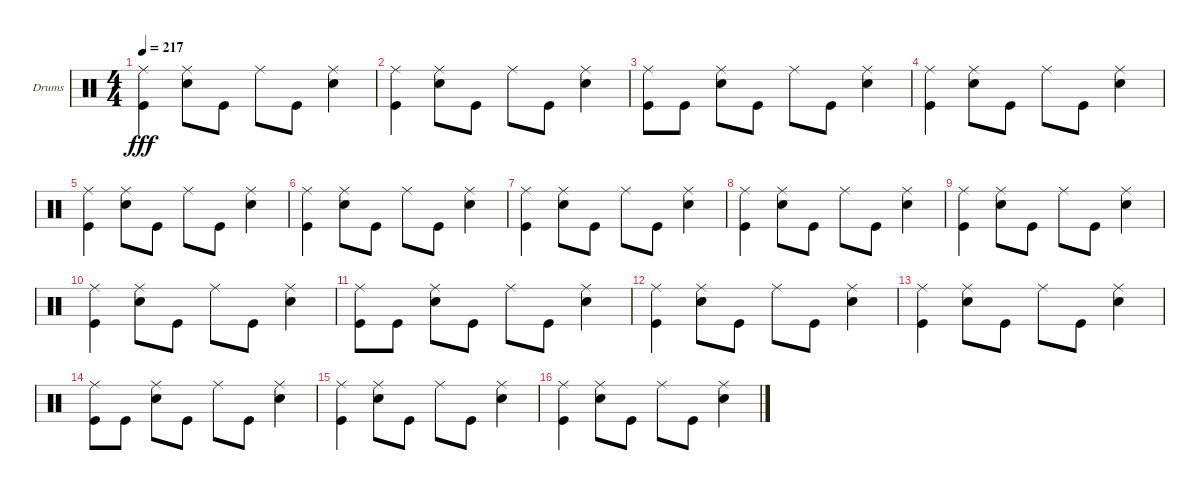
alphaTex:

\bracketExtendMode groupsimilarinstruments
\firstSystemTrackNameOrientation horizontal
\otherSystemsTrackNameOrientation horizontal
\track ("Drumkit" "Drums") {instrument percussion}
\staff {score}
\articulation defaults
\ts (4 4)
\tempo 217
\clef neutral
\ks c
("Kick (hit)" "Ride (middle)").4{dy fff} ("Snare (hit) 2" "Ride (middle)").8 "Kick (hit)".8 "Ride (middle)".8 "Kick (hit)".8 ("Snare (hit) 2" "Ride (middle)").4 |
("Kick (hit)" "Ride (middle)").4 ("Snare (hit) 2" "Ride (middle)").8 "Kick (hit)".8 "Ride (middle)".8 "Kick (hit)".8 ("Snare (hit) 2" "Ride (middle)").4 |
("Kick (hit)" "Ride (middle)").8 "Kick (hit)".8 ("Snare (hit) 2" "Ride (middle)").8 "Kick (hit)".8 "Ride (middle)".8 "Kick (hit)".8 ("Snare (hit) 2" "Ride (middle)").4 |
("Kick (hit)" "Ride (middle)").4 ("Snare (hit) 2" "Ride (middle)").8 "Kick (hit)".8 "Ride (middle)".8 "Kick (hit)".8 ("Snare (hit) 2" "Ride (middle)").4 |
("Kick (hit)" "Ride (middle)").4 ("Snare (hit) 2" "Ride (middle)").8 "Kick (hit)".8 "Ride (middle)".8 "Kick (hit)".8 ("Snare (hit) 2" "Ride (middle)").4 |
("Kick (hit)" "Ride (middle)").4 ("Snare (hit) 2" "Ride (middle)").8 "Kick (hit)".8 "Ride (middle)".8 "Kick (hit)".8 ("Snare (hit) 2" "Ride (middle)").4 |
("Kick (hit)" "Ride (middle)").4 ("Snare (hit) 2" "Ride (middle)").8 "Kick (hit)".8 "Ride (middle)".8 "Kick (hit)".8 ("Snare (hit) 2" "Ride (middle)").4 |
("Kick (hit)" "Ride (middle)").4 ("Snare (hit) 2" "Ride (middle)").8 "Kick (hit)".8 "Ride (middle)".8 "Kick (hit)".8 ("Snare (hit) 2" "Ride (middle)").4 |
("Kick (hit)" "Ride (middle)").4 ("Snare (hit) 2" "Ride (middle)").8 "Kick (hit)".8 "Ride (middle)".8 "Kick (hit)".8 ("Snare (hit) 2" "Ride (middle)").4 |
("Kick (hit)" "Ride (middle)").4 ("Snare (hit) 2" "Ride (middle)").8 "Kick (hit)".8 "Ride (middle)".8 "Kick (hit)".8 ("Snare (hit) 2" "Ride (middle)").4 |
("Kick (hit)" "Ride (middle)").8 "Kick (hit)".8 ("Snare (hit) 2" "Ride (middle)").8 "Kick (hit)".8 "Ride (middle)".8 "Kick (hit)".8 ("Snare (hit) 2" "Ride (middle)").4 |
("Kick (hit)" "Ride (middle)").4 ("Snare (hit) 2" "Ride (middle)").8 "Kick (hit)".8 "Ride (middle)".8 "Kick (hit)".8 ("Snare (hit) 2" "Ride (middle)").4 |
("Kick (hit)" "Ride (middle)").4 ("Snare (hit) 2" "Ride (middle)").8 "Kick (hit)".8 "Ride (middle)".8 "Kick (hit)".8 ("Snare (hit) 2" "Ride (middle)").4 |
("Kick (hit)" "Ride (middle)").8 "Kick (hit)".8 ("Snare (hit) 2" "Ride (middle)").8 "Kick (hit)".8 "Ride (middle)".8 "Kick (hit)".8 ("Snare (hit) 2" "Ride (middle)").4 |
("Kick (hit)" "Ride (middle)").4 ("Snare (hit) 2" "Ride (middle)").8 "Kick (hit)".8 "Ride (middle)".8 "Kick (hit)".8 ("Snare (hit) 2" "Ride (middle)").4 |
("Kick (hit)" "Ride (middle)").4 ("Snare (hit) 2" "Ride (middle)").8 "Kick (hit)".8 "Ride (middle)".8 "Kick (hit)".8 ("Snare (hit) 2" "Ride (middle)").4
